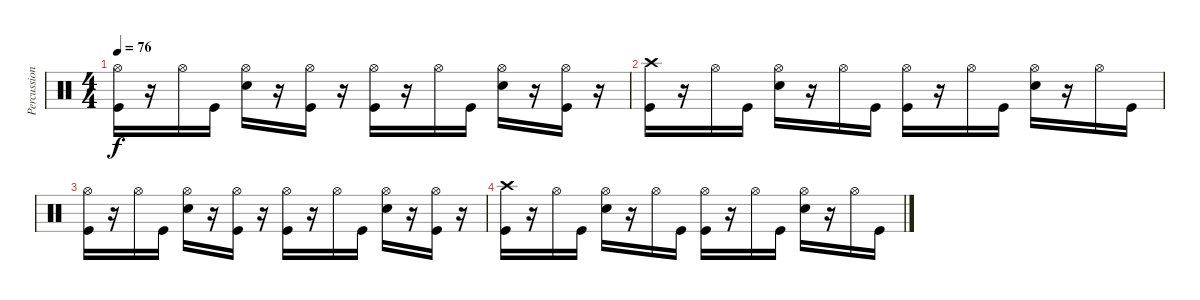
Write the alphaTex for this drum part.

\track ("Percussion" "Percussion") {instrument percussion}
\staff {score}
\articulation defaults
\ts (4 4)
\tempo 76
\clef neutral
\ks c
("Hi-Hat (open)" "Kick (hit)").16{dy f} r.16 "Hi-Hat (open)".16 "Kick (hit)".16 ("Hi-Hat (open)" "Electric Snare (hit)").16 r.16 ("Hi-Hat (open)" "Kick (hit)").16 r.16 ("Hi-Hat (open)" "Kick (hit)").16 r.16 "Hi-Hat (open)".16 "Kick (hit)".16 ("Hi-Hat (open)" "Electric Snare (hit)").16 r.16 ("Hi-Hat (open)" "Kick (hit)").16 r.16 |
("Crash high (hit)" "Kick (hit)").16{volume 13} r.16 "Hi-Hat (open)".16 "Kick (hit)".16 ("Hi-Hat (open)" "Electric Snare (hit)").16 r.16 "Hi-Hat (open)".16 "Kick (hit)".16 ("Hi-Hat (open)" "Kick (hit)").16 r.16 "Hi-Hat (open)".16 "Kick (hit)".16 ("Hi-Hat (open)" "Electric Snare (hit)").16 r.16 "Hi-Hat (open)".16 "Kick (hit)".16 |
("Hi-Hat (open)" "Kick (hit)").16 r.16 "Hi-Hat (open)".16 "Kick (hit)".16 ("Hi-Hat (open)" "Electric Snare (hit)").16 r.16 ("Hi-Hat (open)" "Kick (hit)").16 r.16 ("Hi-Hat (open)" "Kick (hit)").16 r.16 "Hi-Hat (open)".16 "Kick (hit)".16 ("Hi-Hat (open)" "Electric Snare (hit)").16 r.16 ("Hi-Hat (open)" "Kick (hit)").16 r.16 |
("Crash high (hit)" "Kick (hit)").16 r.16 "Hi-Hat (open)".16 "Kick (hit)".16 ("Hi-Hat (open)" "Electric Snare (hit)").16 r.16 "Hi-Hat (open)".16 "Kick (hit)".16 ("Hi-Hat (open)" "Kick (hit)").16 r.16 "Hi-Hat (open)".16 "Kick (hit)".16 ("Hi-Hat (open)" "Electric Snare (hit)").16 r.16 "Hi-Hat (open)".16 "Kick (hit)".16
